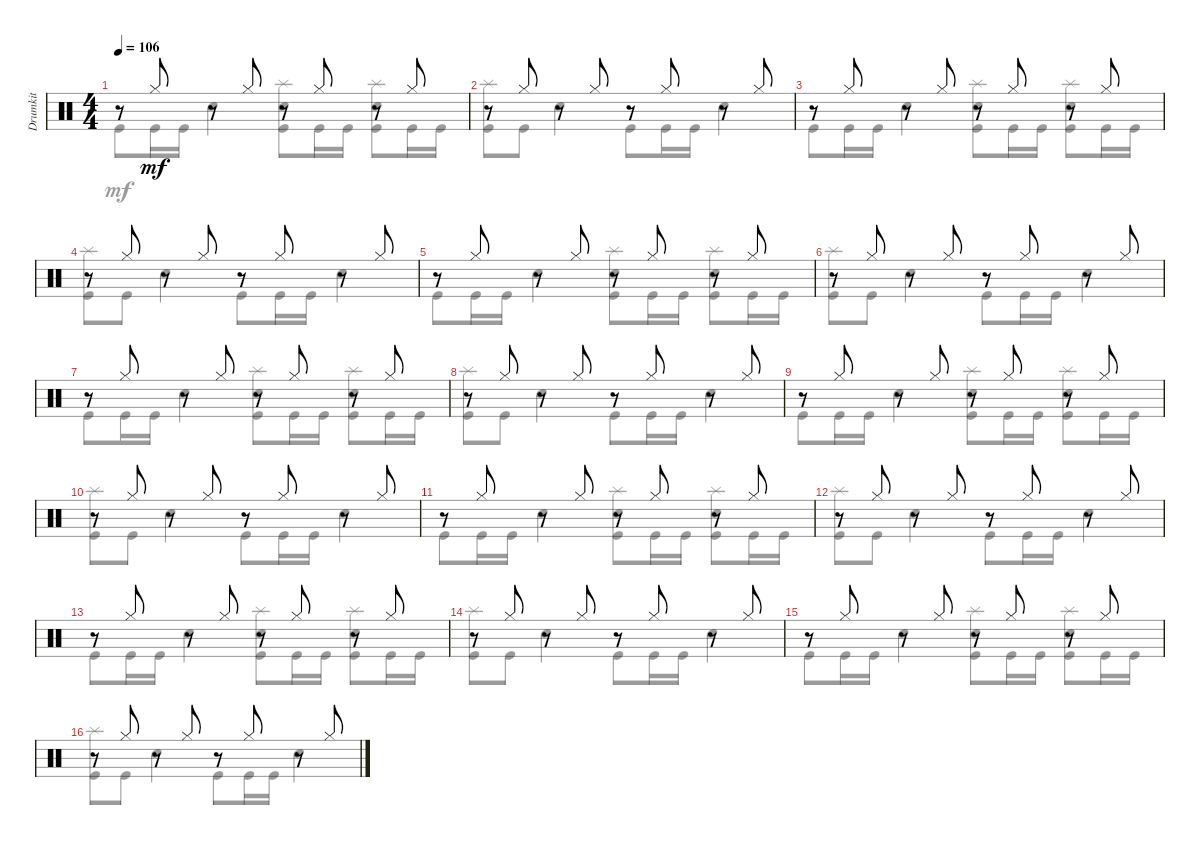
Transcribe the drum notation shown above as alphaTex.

\track ("Drumkit" "Drumkit") {instrument percussion}
\staff {score}
\articulation defaults
\voice
\ts (4 4)
\tempo 106
\clef neutral
\ks c
r.8{dy mf} "Hi-Hat (closed)".8 r.8 "Hi-Hat (closed)".8 r.8 "Hi-Hat (closed)".8 r.8 "Hi-Hat (closed)".8 |
r.8 "Hi-Hat (closed)".8 r.8 "Hi-Hat (closed)".8 r.8 "Hi-Hat (closed)".8 r.8 "Hi-Hat (closed)".8 |
r.8 "Hi-Hat (closed)".8 r.8 "Hi-Hat (closed)".8 r.8 "Hi-Hat (closed)".8 r.8 "Hi-Hat (closed)".8 |
r.8 "Hi-Hat (closed)".8 r.8 "Hi-Hat (closed)".8 r.8 "Hi-Hat (closed)".8 r.8 "Hi-Hat (closed)".8 |
r.8 "Hi-Hat (closed)".8 r.8 "Hi-Hat (closed)".8 r.8 "Hi-Hat (closed)".8 r.8 "Hi-Hat (closed)".8 |
r.8 "Hi-Hat (closed)".8 r.8 "Hi-Hat (closed)".8 r.8 "Hi-Hat (closed)".8 r.8 "Hi-Hat (closed)".8 |
r.8 "Hi-Hat (closed)".8 r.8 "Hi-Hat (closed)".8 r.8 "Hi-Hat (closed)".8 r.8 "Hi-Hat (closed)".8 |
r.8 "Hi-Hat (closed)".8 r.8 "Hi-Hat (closed)".8 r.8 "Hi-Hat (closed)".8 r.8 "Hi-Hat (closed)".8 |
r.8 "Hi-Hat (closed)".8 r.8 "Hi-Hat (closed)".8 r.8 "Hi-Hat (closed)".8 r.8 "Hi-Hat (closed)".8 |
r.8 "Hi-Hat (closed)".8 r.8 "Hi-Hat (closed)".8 r.8 "Hi-Hat (closed)".8 r.8 "Hi-Hat (closed)".8 |
r.8 "Hi-Hat (closed)".8 r.8 "Hi-Hat (closed)".8 r.8 "Hi-Hat (closed)".8 r.8 "Hi-Hat (closed)".8 |
r.8 "Hi-Hat (closed)".8 r.8 "Hi-Hat (closed)".8 r.8 "Hi-Hat (closed)".8 r.8 "Hi-Hat (closed)".8 |
r.8 "Hi-Hat (closed)".8 r.8 "Hi-Hat (closed)".8 r.8 "Hi-Hat (closed)".8 r.8 "Hi-Hat (closed)".8 |
r.8 "Hi-Hat (closed)".8 r.8 "Hi-Hat (closed)".8 r.8 "Hi-Hat (closed)".8 r.8 "Hi-Hat (closed)".8 |
r.8 "Hi-Hat (closed)".8 r.8 "Hi-Hat (closed)".8 r.8 "Hi-Hat (closed)".8 r.8 "Hi-Hat (closed)".8 |
r.8 "Hi-Hat (closed)".8 r.8 "Hi-Hat (closed)".8 r.8 "Hi-Hat (closed)".8 r.8 "Hi-Hat (closed)".8
\voice
\clef neutral
\ottava regular
\simile none
\ks c "Kick (hit)".8{dy mf} "Kick (hit)".16 "Kick (hit)".16 "Snare (hit) 2".4
("Kick (hit)" "Snare (hit) 2" "Splash (hit)").8 "Kick (hit)".16 "Kick (hit)".16 ("Kick (hit)" "Snare (hit) 2" "Splash (hit)").8 "Kick (hit)".16 "Kick (hit)".16 |
("Kick (hit)" "Splash (hit)").8 "Kick (hit)".8 "Snare (hit) 2".4 "Kick (hit)".8 "Kick (hit)".16 "Kick (hit)".16 "Snare (hit) 2".4 |
"Kick (hit)".8 "Kick (hit)".16 "Kick (hit)".16 "Snare (hit) 2".4 ("Kick (hit)" "Snare (hit) 2" "Splash (hit)").8 "Kick (hit)".16 "Kick (hit)".16 ("Kick (hit)" "Snare (hit) 2" "Splash (hit)").8 "Kick (hit)".16 "Kick (hit)".16 |
("Kick (hit)" "Splash (hit)").8 "Kick (hit)".8 "Snare (hit) 2".4 "Kick (hit)".8 "Kick (hit)".16 "Kick (hit)".16 "Snare (hit) 2".4 |
"Kick (hit)".8 "Kick (hit)".16 "Kick (hit)".16 "Snare (hit) 2".4 ("Kick (hit)" "Snare (hit) 2" "Splash (hit)").8 "Kick (hit)".16 "Kick (hit)".16 ("Kick (hit)" "Snare (hit) 2" "Splash (hit)").8 "Kick (hit)".16 "Kick (hit)".16 |
("Kick (hit)" "Splash (hit)").8 "Kick (hit)".8 "Snare (hit) 2".4 "Kick (hit)".8 "Kick (hit)".16 "Kick (hit)".16 "Snare (hit) 2".4 |
"Kick (hit)".8 "Kick (hit)".16 "Kick (hit)".16 "Snare (hit) 2".4 ("Kick (hit)" "Snare (hit) 2" "Splash (hit)").8 "Kick (hit)".16 "Kick (hit)".16 ("Kick (hit)" "Snare (hit) 2" "Splash (hit)").8 "Kick (hit)".16 "Kick (hit)".16 |
("Kick (hit)" "Splash (hit)").8 "Kick (hit)".8 "Snare (hit) 2".4 "Kick (hit)".8 "Kick (hit)".16 "Kick (hit)".16 "Snare (hit) 2".4 |
"Kick (hit)".8 "Kick (hit)".16 "Kick (hit)".16 "Snare (hit) 2".4 ("Kick (hit)" "Snare (hit) 2" "Splash (hit)").8 "Kick (hit)".16 "Kick (hit)".16 ("Kick (hit)" "Snare (hit) 2" "Splash (hit)").8 "Kick (hit)".16 "Kick (hit)".16 |
("Kick (hit)" "Splash (hit)").8 "Kick (hit)".8 "Snare (hit) 2".4 "Kick (hit)".8 "Kick (hit)".16 "Kick (hit)".16 "Snare (hit) 2".4 |
"Kick (hit)".8 "Kick (hit)".16 "Kick (hit)".16 "Snare (hit) 2".4 ("Kick (hit)" "Snare (hit) 2" "Splash (hit)").8 "Kick (hit)".16 "Kick (hit)".16 ("Kick (hit)" "Snare (hit) 2" "Splash (hit)").8 "Kick (hit)".16 "Kick (hit)".16 |
("Kick (hit)" "Splash (hit)").8 "Kick (hit)".8 "Snare (hit) 2".4 "Kick (hit)".8 "Kick (hit)".16 "Kick (hit)".16 "Snare (hit) 2".4 |
"Kick (hit)".8 "Kick (hit)".16 "Kick (hit)".16 "Snare (hit) 2".4 ("Kick (hit)" "Snare (hit) 2" "Splash (hit)").8 "Kick (hit)".16 "Kick (hit)".16 ("Kick (hit)" "Snare (hit) 2" "Splash (hit)").8 "Kick (hit)".16 "Kick (hit)".16 |
("Kick (hit)" "Splash (hit)").8 "Kick (hit)".8 "Snare (hit) 2".4 "Kick (hit)".8 "Kick (hit)".16 "Kick (hit)".16 "Snare (hit) 2".4 |
"Kick (hit)".8 "Kick (hit)".16 "Kick (hit)".16 "Snare (hit) 2".4 ("Kick (hit)" "Snare (hit) 2" "Splash (hit)").8 "Kick (hit)".16 "Kick (hit)".16 ("Kick (hit)" "Snare (hit) 2" "Splash (hit)").8 "Kick (hit)".16 "Kick (hit)".16 |
("Kick (hit)" "Splash (hit)").8 "Kick (hit)".8 "Snare (hit) 2".4 "Kick (hit)".8 "Kick (hit)".16 "Kick (hit)".16 "Snare (hit) 2".4
